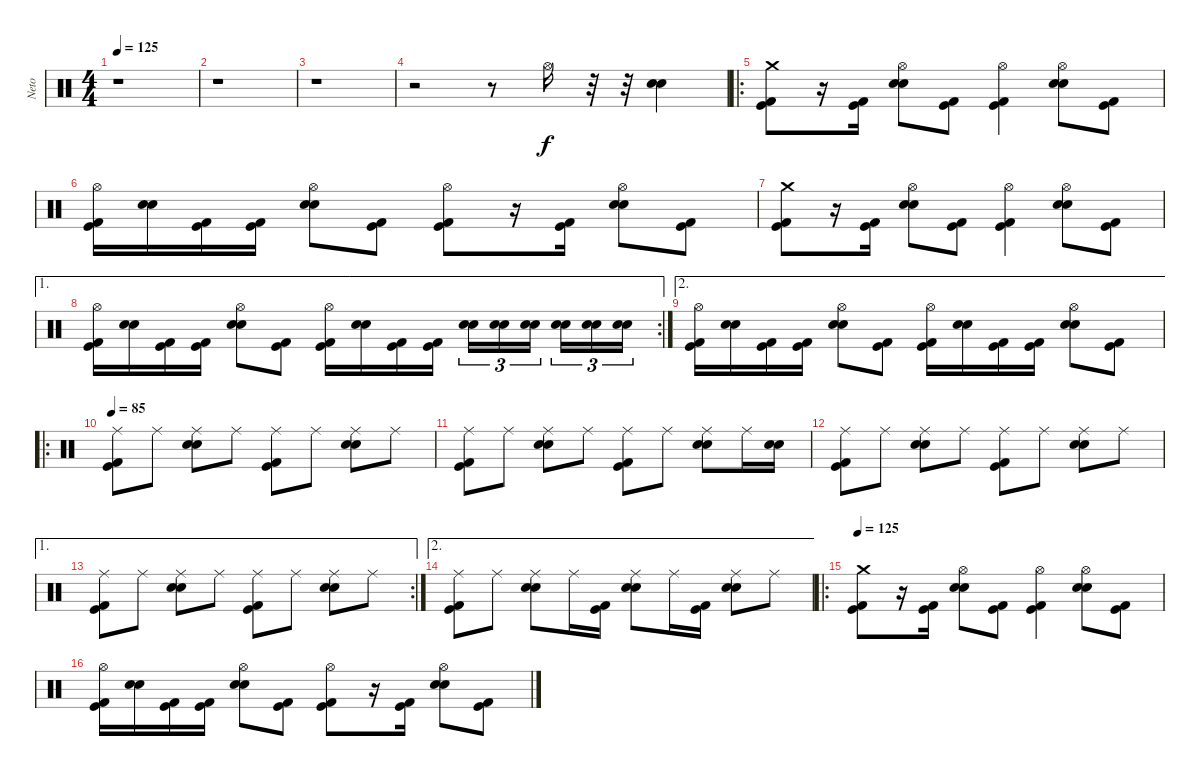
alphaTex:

\track ("Neto" "Neto") {instrument percussion}
\staff {score}
\articulation defaults
\ts (4 4)
\tempo 125
\clef neutral
\ks c
r.1{dy f} |
r.1 |
r.1 |
r.2 r.8 "Hi-Hat (open)".16 r.32 r.32 ("Snare (hit) 2" "Snare (hit) 2").4 |
\ro
("Crash medium (hit)" "Kick (hit)" "Kick (hit) 2").8 r.16 ("Kick (hit)" "Kick (hit) 2").16 ("Hi-Hat (open)" "Snare (hit) 2" "Snare (hit) 2").8 ("Kick (hit)" "Kick (hit) 2").8 ("Hi-Hat (open)" "Kick (hit)" "Kick (hit) 2").4 ("Hi-Hat (open)" "Snare (hit) 2" "Snare (hit) 2").8 ("Kick (hit)" "Kick (hit) 2").8 |
("Hi-Hat (open)" "Kick (hit)" "Kick (hit) 2").16 ("Snare (hit) 2" "Snare (hit) 2").16 ("Kick (hit)" "Kick (hit) 2").16 ("Kick (hit)" "Kick (hit) 2").16 ("Hi-Hat (open)" "Snare (hit) 2" "Snare (hit) 2").8 ("Kick (hit)" "Kick (hit) 2").8 ("Hi-Hat (open)" "Kick (hit)" "Kick (hit) 2").8 r.16 ("Kick (hit)" "Kick (hit) 2").16 ("Hi-Hat (open)" "Snare (hit) 2" "Snare (hit) 2").8 ("Kick (hit)" "Kick (hit) 2").8 |
("Crash medium (hit)" "Kick (hit)" "Kick (hit) 2").8 r.16 ("Kick (hit)" "Kick (hit) 2").16 ("Hi-Hat (open)" "Snare (hit) 2" "Snare (hit) 2").8 ("Kick (hit)" "Kick (hit) 2").8 ("Hi-Hat (open)" "Kick (hit)" "Kick (hit) 2").4 ("Hi-Hat (open)" "Snare (hit) 2" "Snare (hit) 2").8 ("Kick (hit)" "Kick (hit) 2").8 |
\ae 1
\rc 2
("Hi-Hat (open)" "Kick (hit)" "Kick (hit) 2").16 ("Snare (hit) 2" "Snare (hit) 2").16 ("Kick (hit)" "Kick (hit) 2").16 ("Kick (hit)" "Kick (hit) 2").16 ("Hi-Hat (open)" "Snare (hit) 2" "Snare (hit) 2").8 ("Kick (hit)" "Kick (hit) 2").8 ("Hi-Hat (open)" "Kick (hit)" "Kick (hit) 2").16 ("Snare (hit) 2" "Snare (hit) 2").16 ("Kick (hit)" "Kick (hit) 2").16 ("Kick (hit)" "Kick (hit) 2").16 ("Snare (hit) 2" "Snare (hit) 2").16{tu (3 2)} ("Snare (hit) 2" "Snare (hit) 2").16{tu (3 2)} ("Snare (hit) 2" "Snare (hit) 2").16{tu (3 2)} ("Snare (hit) 2" "Snare (hit) 2").16{tu (3 2)} ("Snare (hit) 2" "Snare (hit) 2").16{tu (3 2)} ("Snare (hit) 2" "Snare (hit) 2").16{tu (3 2)} |
\ae 2
("Hi-Hat (open)" "Kick (hit)" "Kick (hit) 2").16 ("Snare (hit) 2" "Snare (hit) 2").16 ("Kick (hit)" "Kick (hit) 2").16 ("Kick (hit)" "Kick (hit) 2").16 ("Hi-Hat (open)" "Snare (hit) 2" "Snare (hit) 2").8 ("Kick (hit)" "Kick (hit) 2").8 ("Hi-Hat (open)" "Kick (hit)" "Kick (hit) 2").16 ("Snare (hit) 2" "Snare (hit) 2").16 ("Kick (hit)" "Kick (hit) 2").16 ("Kick (hit)" "Kick (hit) 2").16 ("Hi-Hat (open)" "Snare (hit) 2" "Snare (hit) 2").8 ("Kick (hit)" "Kick (hit) 2").8 |
\ro
\tempo 85
("Ride (middle)" "Kick (hit)" "Kick (hit) 2").8 "Ride (middle)".8 ("Ride (middle)" "Snare (hit) 2" "Snare (hit) 2").8 "Ride (middle)".8 ("Ride (middle)" "Kick (hit)" "Kick (hit) 2").8 "Ride (middle)".8 ("Ride (middle)" "Snare (hit) 2" "Snare (hit) 2").8 "Ride (middle)".8 |
("Ride (middle)" "Kick (hit)" "Kick (hit) 2").8 "Ride (middle)".8 ("Ride (middle)" "Snare (hit) 2" "Snare (hit) 2").8 "Ride (middle)".8 ("Ride (middle)" "Kick (hit)" "Kick (hit) 2").8 "Ride (middle)".8 ("Ride (middle)" "Snare (hit) 2" "Snare (hit) 2").8 "Ride (middle)".16 ("Snare (hit) 2" "Snare (hit) 2").16 |
("Ride (middle)" "Kick (hit)" "Kick (hit) 2").8 "Ride (middle)".8 ("Ride (middle)" "Snare (hit) 2" "Snare (hit) 2").8 "Ride (middle)".8 ("Ride (middle)" "Kick (hit)" "Kick (hit) 2").8 "Ride (middle)".8 ("Ride (middle)" "Snare (hit) 2" "Snare (hit) 2").8 "Ride (middle)".8 |
\ae 1
\rc 2
("Ride (middle)" "Kick (hit)" "Kick (hit) 2").8 "Ride (middle)".8 ("Ride (middle)" "Snare (hit) 2" "Snare (hit) 2").8 "Ride (middle)".8 ("Ride (middle)" "Kick (hit)" "Kick (hit) 2").8 "Ride (middle)".8 ("Ride (middle)" "Snare (hit) 2" "Snare (hit) 2").8 "Ride (middle)".8 |
\ae 2
("Ride (middle)" "Kick (hit)" "Kick (hit) 2").8 "Ride (middle)".8 ("Ride (middle)" "Snare (hit) 2" "Snare (hit) 2").8 "Ride (middle)".16 ("Kick (hit)" "Kick (hit) 2").16 ("Ride (middle)" "Snare (hit) 2" "Snare (hit) 2").8 "Ride (middle)".16 ("Kick (hit)" "Kick (hit) 2").16 ("Ride (middle)" "Snare (hit) 2" "Snare (hit) 2").8 "Ride (middle)".8 |
\ro
\tempo 125
("Crash medium (hit)" "Kick (hit)" "Kick (hit) 2").8 r.16 ("Kick (hit)" "Kick (hit) 2").16 ("Hi-Hat (open)" "Snare (hit) 2" "Snare (hit) 2").8 ("Kick (hit)" "Kick (hit) 2").8 ("Hi-Hat (open)" "Kick (hit)" "Kick (hit) 2").4 ("Hi-Hat (open)" "Snare (hit) 2" "Snare (hit) 2").8 ("Kick (hit)" "Kick (hit) 2").8 |
("Hi-Hat (open)" "Kick (hit)" "Kick (hit) 2").16 ("Snare (hit) 2" "Snare (hit) 2").16 ("Kick (hit)" "Kick (hit) 2").16 ("Kick (hit)" "Kick (hit) 2").16 ("Hi-Hat (open)" "Snare (hit) 2" "Snare (hit) 2").8 ("Kick (hit)" "Kick (hit) 2").8 ("Hi-Hat (open)" "Kick (hit)" "Kick (hit) 2").8 r.16 ("Kick (hit)" "Kick (hit) 2").16 ("Hi-Hat (open)" "Snare (hit) 2" "Snare (hit) 2").8 ("Kick (hit)" "Kick (hit) 2").8
